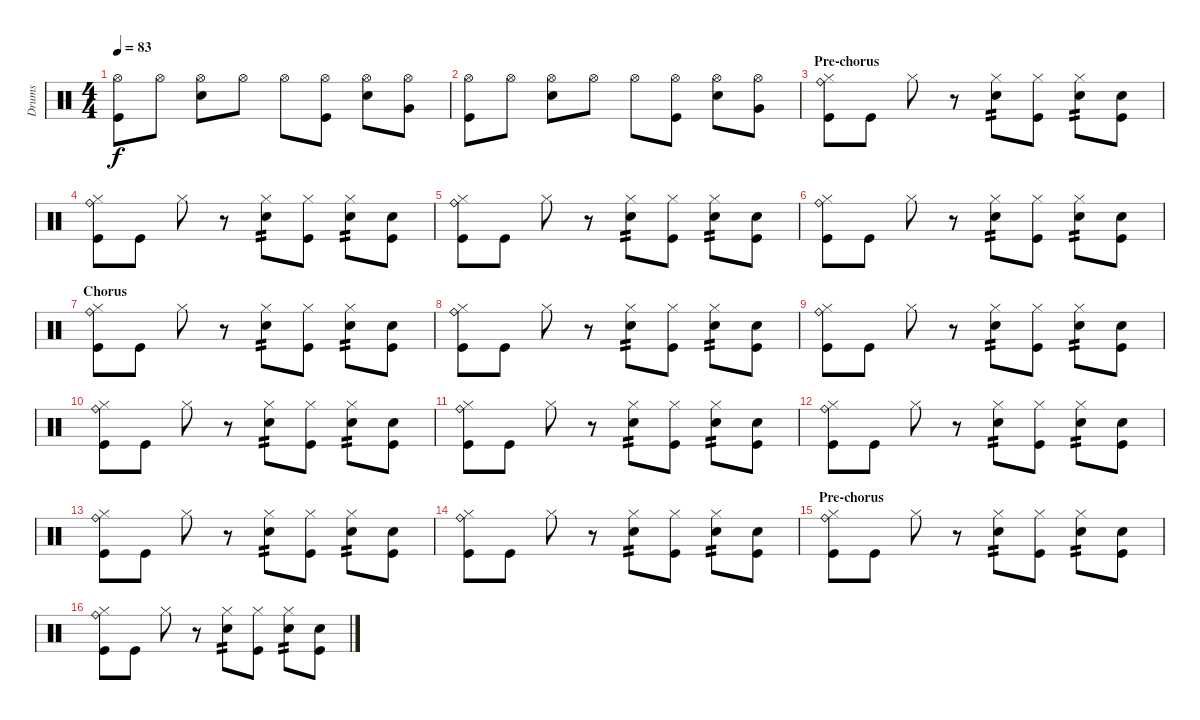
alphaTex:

\track ("Drums" "Drums") {instrument percussion}
\staff {score}
\articulation defaults
\ts (4 4)
\tempo 83
\clef neutral
\ks c
("Hi-Hat (open)" "Kick (hit)").8{dy f} "Hi-Hat (open)".8 ("Hi-Hat (open)" "Electric Snare (hit)").8 "Hi-Hat (open)".8 "Hi-Hat (open)".8 ("Hi-Hat (open)" "Kick (hit)").8 ("Hi-Hat (open)" "Electric Snare (hit)").8 ("Hi-Hat (open)" "Very Low Tom (hit)").8 |
("Hi-Hat (open)" "Kick (hit)").8 "Hi-Hat (open)".8 ("Hi-Hat (open)" "Electric Snare (hit)").8 "Hi-Hat (open)".8 "Hi-Hat (open)".8 ("Hi-Hat (open)" "Kick (hit)").8 ("Hi-Hat (open)" "Electric Snare (hit)").8 ("Hi-Hat (open)" "Very Low Tom (hit)").8 |
\section ("" "Pre-chorus")
("Ride (bell)" "Hi-Hat (closed)" "Kick (hit)").8 "Kick (hit)".8 "Hi-Hat (closed)".8 r.8 ("Hand Clap (hit)" "Hi-Hat (closed)").8{tp 2} ("Hi-Hat (closed)" "Kick (hit)").8 ("Hand Clap (hit)" "Hi-Hat (closed)").8{tp 2} ("Snare (hit)" "Kick (hit)").8 |
("Ride (bell)" "Hi-Hat (closed)" "Kick (hit)").8 "Kick (hit)".8 "Hi-Hat (closed)".8 r.8 ("Hand Clap (hit)" "Hi-Hat (closed)").8{tp 2} ("Hi-Hat (closed)" "Kick (hit)").8 ("Hand Clap (hit)" "Hi-Hat (closed)").8{tp 2} ("Snare (hit)" "Kick (hit)").8 |
("Ride (bell)" "Hi-Hat (closed)" "Kick (hit)").8 "Kick (hit)".8 "Hi-Hat (closed)".8 r.8 ("Hand Clap (hit)" "Hi-Hat (closed)").8{tp 2} ("Hi-Hat (closed)" "Kick (hit)").8 ("Hand Clap (hit)" "Hi-Hat (closed)").8{tp 2} ("Snare (hit)" "Kick (hit)").8 |
("Ride (bell)" "Hi-Hat (closed)" "Kick (hit)").8 "Kick (hit)".8 "Hi-Hat (closed)".8 r.8 ("Hand Clap (hit)" "Hi-Hat (closed)").8{tp 2} ("Hi-Hat (closed)" "Kick (hit)").8 ("Hand Clap (hit)" "Hi-Hat (closed)").8{tp 2} ("Snare (hit)" "Kick (hit)").8 |
\section ("" "Chorus")
("Ride (bell)" "Hi-Hat (closed)" "Kick (hit)").8 "Kick (hit)".8 "Hi-Hat (closed)".8 r.8 ("Hand Clap (hit)" "Hi-Hat (closed)").8{tp 2} ("Hi-Hat (closed)" "Kick (hit)").8 ("Hand Clap (hit)" "Hi-Hat (closed)").8{tp 2} ("Snare (hit)" "Kick (hit)").8 |
("Ride (bell)" "Hi-Hat (closed)" "Kick (hit)").8 "Kick (hit)".8 "Hi-Hat (closed)".8 r.8 ("Hand Clap (hit)" "Hi-Hat (closed)").8{tp 2} ("Hi-Hat (closed)" "Kick (hit)").8 ("Hand Clap (hit)" "Hi-Hat (closed)").8{tp 2} ("Snare (hit)" "Kick (hit)").8 |
("Ride (bell)" "Hi-Hat (closed)" "Kick (hit)").8 "Kick (hit)".8 "Hi-Hat (closed)".8 r.8 ("Hand Clap (hit)" "Hi-Hat (closed)").8{tp 2} ("Hi-Hat (closed)" "Kick (hit)").8 ("Hand Clap (hit)" "Hi-Hat (closed)").8{tp 2} ("Snare (hit)" "Kick (hit)").8 |
("Ride (bell)" "Hi-Hat (closed)" "Kick (hit)").8 "Kick (hit)".8 "Hi-Hat (closed)".8 r.8 ("Hand Clap (hit)" "Hi-Hat (closed)").8{tp 2} ("Hi-Hat (closed)" "Kick (hit)").8 ("Hand Clap (hit)" "Hi-Hat (closed)").8{tp 2} ("Snare (hit)" "Kick (hit)").8 |
("Ride (bell)" "Hi-Hat (closed)" "Kick (hit)").8 "Kick (hit)".8 "Hi-Hat (closed)".8 r.8 ("Hand Clap (hit)" "Hi-Hat (closed)").8{tp 2} ("Hi-Hat (closed)" "Kick (hit)").8 ("Hand Clap (hit)" "Hi-Hat (closed)").8{tp 2} ("Snare (hit)" "Kick (hit)").8 |
("Ride (bell)" "Hi-Hat (closed)" "Kick (hit)").8 "Kick (hit)".8 "Hi-Hat (closed)".8 r.8 ("Hand Clap (hit)" "Hi-Hat (closed)").8{tp 2} ("Hi-Hat (closed)" "Kick (hit)").8 ("Hand Clap (hit)" "Hi-Hat (closed)").8{tp 2} ("Snare (hit)" "Kick (hit)").8 |
("Ride (bell)" "Hi-Hat (closed)" "Kick (hit)").8 "Kick (hit)".8 "Hi-Hat (closed)".8 r.8 ("Hand Clap (hit)" "Hi-Hat (closed)").8{tp 2} ("Hi-Hat (closed)" "Kick (hit)").8 ("Hand Clap (hit)" "Hi-Hat (closed)").8{tp 2} ("Snare (hit)" "Kick (hit)").8 |
("Ride (bell)" "Hi-Hat (closed)" "Kick (hit)").8 "Kick (hit)".8 "Hi-Hat (closed)".8 r.8 ("Hand Clap (hit)" "Hi-Hat (closed)").8{tp 2} ("Hi-Hat (closed)" "Kick (hit)").8 ("Hand Clap (hit)" "Hi-Hat (closed)").8{tp 2} ("Snare (hit)" "Kick (hit)").8 |
\section ("" "Pre-chorus")
("Ride (bell)" "Hi-Hat (closed)" "Kick (hit)").8 "Kick (hit)".8 "Hi-Hat (closed)".8 r.8 ("Hand Clap (hit)" "Hi-Hat (closed)").8{tp 2} ("Hi-Hat (closed)" "Kick (hit)").8 ("Hand Clap (hit)" "Hi-Hat (closed)").8{tp 2} ("Snare (hit)" "Kick (hit)").8 |
("Ride (bell)" "Hi-Hat (closed)" "Kick (hit)").8 "Kick (hit)".8 "Hi-Hat (closed)".8 r.8 ("Hand Clap (hit)" "Hi-Hat (closed)").8{tp 2} ("Hi-Hat (closed)" "Kick (hit)").8 ("Hand Clap (hit)" "Hi-Hat (closed)").8{tp 2} ("Snare (hit)" "Kick (hit)").8
